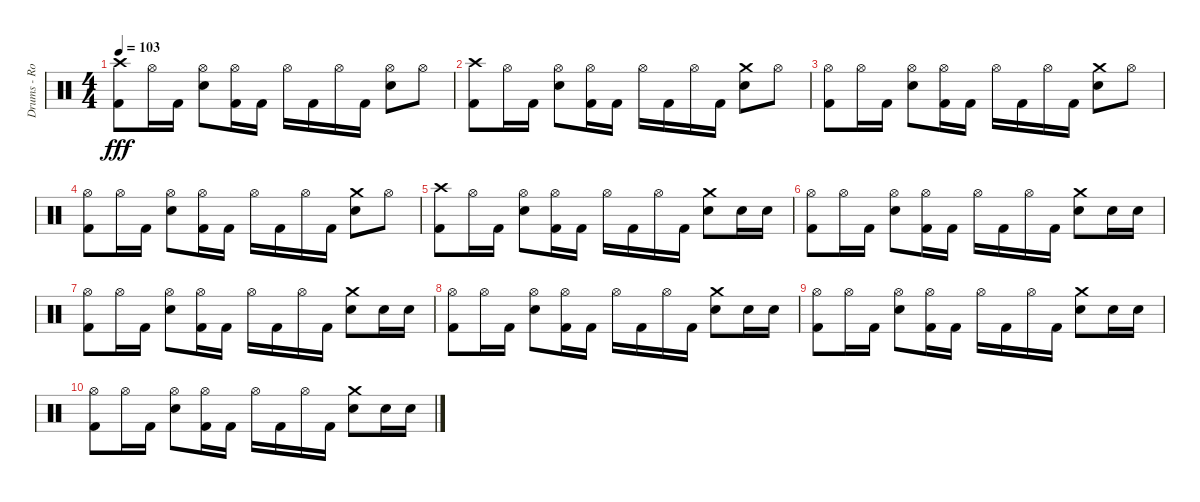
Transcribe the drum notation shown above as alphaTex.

\track ("Drums - Rob Bourdon" "Drums - Ro") {instrument percussion}
\staff {score}
\articulation defaults
\ts (4 4)
\tempo 103
\clef neutral
\ks c
("Crash high (hit)" "Kick (hit) 2").8{dy fff} "Hi-Hat (open)".16 "Kick (hit) 2".16 ("Hi-Hat (open)" "Snare (hit) 2").8 ("Hi-Hat (open)" "Kick (hit) 2").16 "Kick (hit) 2".16 "Hi-Hat (open)".16 "Kick (hit) 2".16 "Hi-Hat (open)".16 "Kick (hit) 2".16 ("Hi-Hat (open)" "Snare (hit) 2").8 "Hi-Hat (open)".8 |
("Crash high (hit)" "Kick (hit) 2").8 "Hi-Hat (open)".16 "Kick (hit) 2".16 ("Hi-Hat (open)" "Snare (hit) 2").8 ("Hi-Hat (open)" "Kick (hit) 2").16 "Kick (hit) 2".16 "Hi-Hat (open)".16 "Kick (hit) 2".16 "Hi-Hat (open)".16 "Kick (hit) 2".16 ("Crash medium (hit)" "Snare (hit) 2").8 "Hi-Hat (open)".8 |
("Hi-Hat (open)" "Kick (hit) 2").8 "Hi-Hat (open)".16 "Kick (hit) 2".16 ("Hi-Hat (open)" "Snare (hit) 2").8 ("Hi-Hat (open)" "Kick (hit) 2").16 "Kick (hit) 2".16 "Hi-Hat (open)".16 "Kick (hit) 2".16 "Hi-Hat (open)".16 "Kick (hit) 2".16 ("Crash medium (hit)" "Snare (hit) 2").8 "Hi-Hat (open)".8 |
("Hi-Hat (open)" "Kick (hit) 2").8 "Hi-Hat (open)".16 "Kick (hit) 2".16 ("Hi-Hat (open)" "Snare (hit) 2").8 ("Hi-Hat (open)" "Kick (hit) 2").16 "Kick (hit) 2".16 "Hi-Hat (open)".16 "Kick (hit) 2".16 "Hi-Hat (open)".16 "Kick (hit) 2".16 ("Crash medium (hit)" "Snare (hit) 2").8 "Hi-Hat (open)".8 |
("Crash high (hit)" "Kick (hit) 2").8 "Hi-Hat (open)".16 "Kick (hit) 2".16 ("Hi-Hat (open)" "Snare (hit) 2").8 ("Hi-Hat (open)" "Kick (hit) 2").16 "Kick (hit) 2".16 "Hi-Hat (open)".16 "Kick (hit) 2".16 "Hi-Hat (open)".16 "Kick (hit) 2".16 ("Crash medium (hit)" "Snare (hit) 2").8 "Snare (hit) 2".16 "Snare (hit) 2".16 |
("Hi-Hat (open)" "Kick (hit) 2").8 "Hi-Hat (open)".16 "Kick (hit) 2".16 ("Hi-Hat (open)" "Snare (hit) 2").8 ("Hi-Hat (open)" "Kick (hit) 2").16 "Kick (hit) 2".16 "Hi-Hat (open)".16 "Kick (hit) 2".16 "Hi-Hat (open)".16 "Kick (hit) 2".16 ("Crash medium (hit)" "Snare (hit) 2").8 "Snare (hit) 2".16 "Snare (hit) 2".16 |
("Hi-Hat (open)" "Kick (hit) 2").8 "Hi-Hat (open)".16 "Kick (hit) 2".16 ("Hi-Hat (open)" "Snare (hit) 2").8 ("Hi-Hat (open)" "Kick (hit) 2").16 "Kick (hit) 2".16 "Hi-Hat (open)".16 "Kick (hit) 2".16 "Hi-Hat (open)".16 "Kick (hit) 2".16 ("Crash medium (hit)" "Snare (hit) 2").8 "Snare (hit) 2".16 "Snare (hit) 2".16 |
("Hi-Hat (open)" "Kick (hit) 2").8 "Hi-Hat (open)".16 "Kick (hit) 2".16 ("Hi-Hat (open)" "Snare (hit) 2").8 ("Hi-Hat (open)" "Kick (hit) 2").16 "Kick (hit) 2".16 "Hi-Hat (open)".16 "Kick (hit) 2".16 "Hi-Hat (open)".16 "Kick (hit) 2".16 ("Crash medium (hit)" "Snare (hit) 2").8 "Snare (hit) 2".16 "Snare (hit) 2".16 |
("Hi-Hat (open)" "Kick (hit) 2").8 "Hi-Hat (open)".16 "Kick (hit) 2".16 ("Hi-Hat (open)" "Snare (hit) 2").8 ("Hi-Hat (open)" "Kick (hit) 2").16 "Kick (hit) 2".16 "Hi-Hat (open)".16 "Kick (hit) 2".16 "Hi-Hat (open)".16 "Kick (hit) 2".16 ("Crash medium (hit)" "Snare (hit) 2").8 "Snare (hit) 2".16 "Snare (hit) 2".16 |
("Hi-Hat (open)" "Kick (hit) 2").8 "Hi-Hat (open)".16 "Kick (hit) 2".16 ("Hi-Hat (open)" "Snare (hit) 2").8 ("Hi-Hat (open)" "Kick (hit) 2").16 "Kick (hit) 2".16 "Hi-Hat (open)".16 "Kick (hit) 2".16 "Hi-Hat (open)".16 "Kick (hit) 2".16 ("Crash medium (hit)" "Snare (hit) 2").8 "Snare (hit) 2".16 "Snare (hit) 2".16
